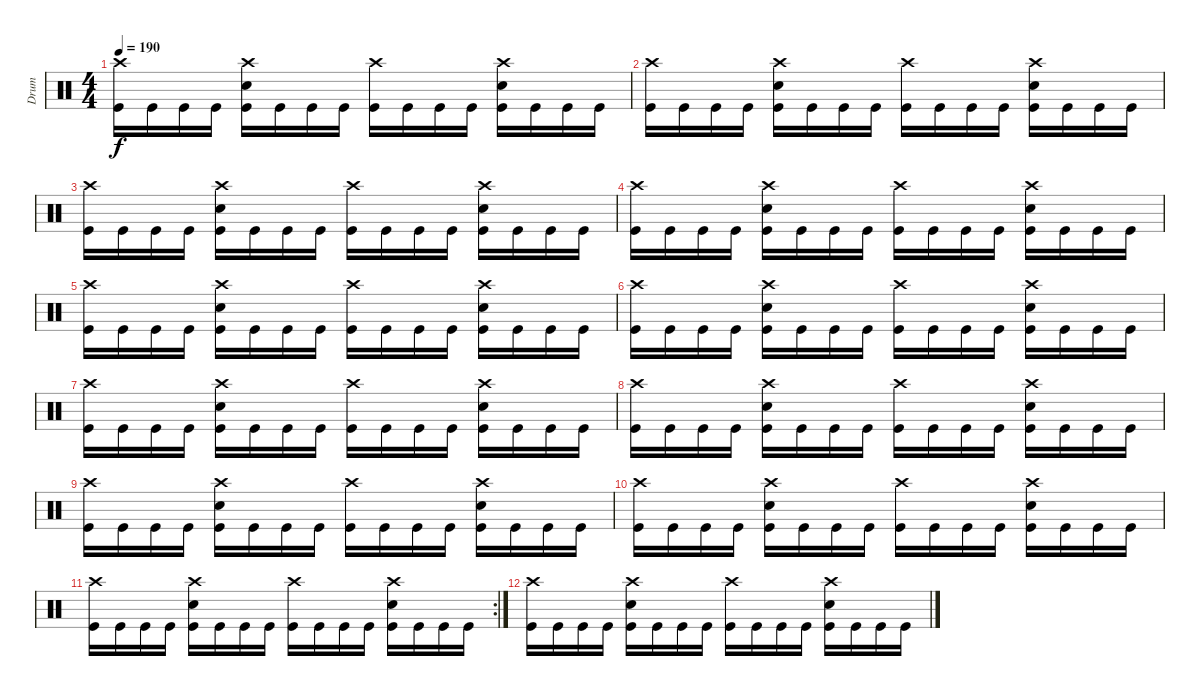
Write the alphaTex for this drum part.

\track ("Drum" "Drum") {instrument percussion}
\staff {score}
\articulation defaults
\ts (4 4)
\tempo 190
\clef neutral
\ks c
("Crash high (hit)" "Kick (hit)").16{dy f} "Kick (hit)".16 "Kick (hit)".16 "Kick (hit)".16 ("Snare (hit) 2" "Crash high (hit)" "Kick (hit)").16 "Kick (hit)".16 "Kick (hit)".16 "Kick (hit)".16 ("Crash high (hit)" "Kick (hit)").16 "Kick (hit)".16 "Kick (hit)".16 "Kick (hit)".16 ("Snare (hit) 2" "Crash high (hit)" "Kick (hit)").16 "Kick (hit)".16 "Kick (hit)".16 "Kick (hit)".16 |
("Crash high (hit)" "Kick (hit)").16 "Kick (hit)".16 "Kick (hit)".16 "Kick (hit)".16 ("Snare (hit) 2" "Crash high (hit)" "Kick (hit)").16 "Kick (hit)".16 "Kick (hit)".16 "Kick (hit)".16 ("Crash high (hit)" "Kick (hit)").16 "Kick (hit)".16 "Kick (hit)".16 "Kick (hit)".16 ("Snare (hit) 2" "Crash high (hit)" "Kick (hit)").16 "Kick (hit)".16 "Kick (hit)".16 "Kick (hit)".16 |
("Crash high (hit)" "Kick (hit)").16 "Kick (hit)".16 "Kick (hit)".16 "Kick (hit)".16 ("Snare (hit) 2" "Crash high (hit)" "Kick (hit)").16 "Kick (hit)".16 "Kick (hit)".16 "Kick (hit)".16 ("Crash high (hit)" "Kick (hit)").16 "Kick (hit)".16 "Kick (hit)".16 "Kick (hit)".16 ("Snare (hit) 2" "Crash high (hit)" "Kick (hit)").16 "Kick (hit)".16 "Kick (hit)".16 "Kick (hit)".16 |
("Crash high (hit)" "Kick (hit)").16 "Kick (hit)".16 "Kick (hit)".16 "Kick (hit)".16 ("Snare (hit) 2" "Crash high (hit)" "Kick (hit)").16 "Kick (hit)".16 "Kick (hit)".16 "Kick (hit)".16 ("Crash high (hit)" "Kick (hit)").16 "Kick (hit)".16 "Kick (hit)".16 "Kick (hit)".16 ("Snare (hit) 2" "Crash high (hit)" "Kick (hit)").16 "Kick (hit)".16 "Kick (hit)".16 "Kick (hit)".16 |
("Crash high (hit)" "Kick (hit)").16 "Kick (hit)".16 "Kick (hit)".16 "Kick (hit)".16 ("Snare (hit) 2" "Crash high (hit)" "Kick (hit)").16 "Kick (hit)".16 "Kick (hit)".16 "Kick (hit)".16 ("Crash high (hit)" "Kick (hit)").16 "Kick (hit)".16 "Kick (hit)".16 "Kick (hit)".16 ("Snare (hit) 2" "Crash high (hit)" "Kick (hit)").16 "Kick (hit)".16 "Kick (hit)".16 "Kick (hit)".16 |
("Crash high (hit)" "Kick (hit)").16 "Kick (hit)".16 "Kick (hit)".16 "Kick (hit)".16 ("Snare (hit) 2" "Crash high (hit)" "Kick (hit)").16 "Kick (hit)".16 "Kick (hit)".16 "Kick (hit)".16 ("Crash high (hit)" "Kick (hit)").16 "Kick (hit)".16 "Kick (hit)".16 "Kick (hit)".16 ("Snare (hit) 2" "Crash high (hit)" "Kick (hit)").16 "Kick (hit)".16 "Kick (hit)".16 "Kick (hit)".16 |
("Crash high (hit)" "Kick (hit)").16 "Kick (hit)".16 "Kick (hit)".16 "Kick (hit)".16 ("Snare (hit) 2" "Crash high (hit)" "Kick (hit)").16 "Kick (hit)".16 "Kick (hit)".16 "Kick (hit)".16 ("Crash high (hit)" "Kick (hit)").16 "Kick (hit)".16 "Kick (hit)".16 "Kick (hit)".16 ("Snare (hit) 2" "Crash high (hit)" "Kick (hit)").16 "Kick (hit)".16 "Kick (hit)".16 "Kick (hit)".16 |
("Crash high (hit)" "Kick (hit)").16 "Kick (hit)".16 "Kick (hit)".16 "Kick (hit)".16 ("Snare (hit) 2" "Crash high (hit)" "Kick (hit)").16 "Kick (hit)".16 "Kick (hit)".16 "Kick (hit)".16 ("Crash high (hit)" "Kick (hit)").16 "Kick (hit)".16 "Kick (hit)".16 "Kick (hit)".16 ("Snare (hit) 2" "Crash high (hit)" "Kick (hit)").16 "Kick (hit)".16 "Kick (hit)".16 "Kick (hit)".16 |
("Crash high (hit)" "Kick (hit)").16 "Kick (hit)".16 "Kick (hit)".16 "Kick (hit)".16 ("Snare (hit) 2" "Crash high (hit)" "Kick (hit)").16 "Kick (hit)".16 "Kick (hit)".16 "Kick (hit)".16 ("Crash high (hit)" "Kick (hit)").16 "Kick (hit)".16 "Kick (hit)".16 "Kick (hit)".16 ("Snare (hit) 2" "Crash high (hit)" "Kick (hit)").16 "Kick (hit)".16 "Kick (hit)".16 "Kick (hit)".16 |
("Crash high (hit)" "Kick (hit)").16 "Kick (hit)".16 "Kick (hit)".16 "Kick (hit)".16 ("Snare (hit) 2" "Crash high (hit)" "Kick (hit)").16 "Kick (hit)".16 "Kick (hit)".16 "Kick (hit)".16 ("Crash high (hit)" "Kick (hit)").16 "Kick (hit)".16 "Kick (hit)".16 "Kick (hit)".16 ("Snare (hit) 2" "Crash high (hit)" "Kick (hit)").16 "Kick (hit)".16 "Kick (hit)".16 "Kick (hit)".16 |
\rc 2
("Crash high (hit)" "Kick (hit)").16 "Kick (hit)".16 "Kick (hit)".16 "Kick (hit)".16 ("Snare (hit) 2" "Crash high (hit)" "Kick (hit)").16 "Kick (hit)".16 "Kick (hit)".16 "Kick (hit)".16 ("Crash high (hit)" "Kick (hit)").16 "Kick (hit)".16 "Kick (hit)".16 "Kick (hit)".16 ("Snare (hit) 2" "Crash high (hit)" "Kick (hit)").16 "Kick (hit)".16 "Kick (hit)".16 "Kick (hit)".16 |
("Crash high (hit)" "Kick (hit)").16 "Kick (hit)".16 "Kick (hit)".16 "Kick (hit)".16 ("Snare (hit) 2" "Crash high (hit)" "Kick (hit)").16 "Kick (hit)".16 "Kick (hit)".16 "Kick (hit)".16 ("Crash high (hit)" "Kick (hit)").16 "Kick (hit)".16 "Kick (hit)".16 "Kick (hit)".16 ("Snare (hit) 2" "Crash high (hit)" "Kick (hit)").16 "Kick (hit)".16 "Kick (hit)".16 "Kick (hit)".16
